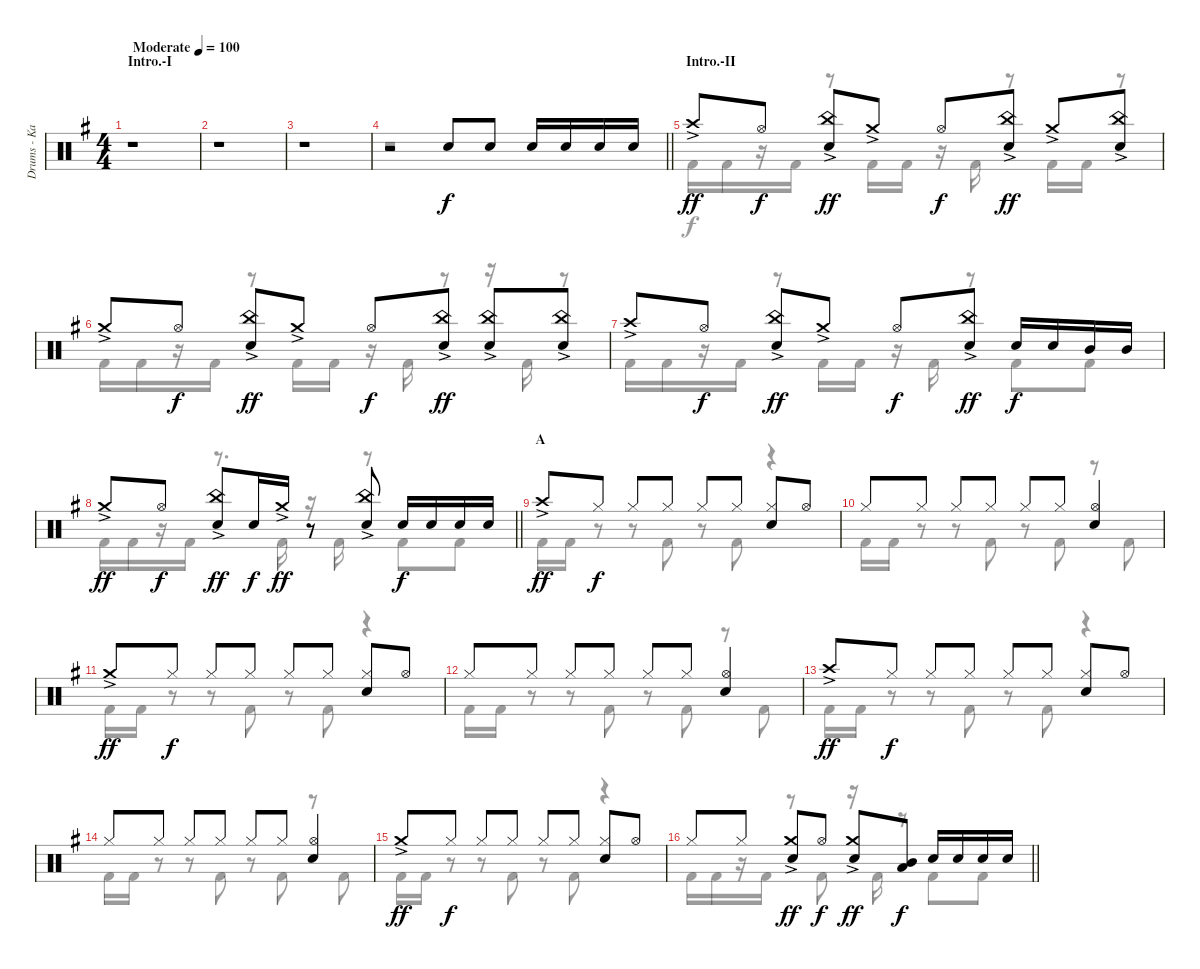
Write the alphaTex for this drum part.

\track ("Drums - Kai" "Drums - Ka") {instrument percussion}
\staff {score}
\articulation defaults
\voice
\ts (4 4)
\section ("" "Intro.-I")
\tempo (100 "Moderate")
\clef neutral
\ks g
r.1{dy f} |
r.1 |
r.1 |
\barLineRight lightlight
r.2 "Electric Snare (hit)".8 "Electric Snare (hit)".8 "Electric Snare (hit)".16 "Electric Snare (hit)".16 "Electric Snare (hit)".16 "Electric Snare (hit)".16 |
\section ("" "Intro.-II")
"Crash high (hit)"{ac}.8{dy ff} "Hi-Hat (open)".8{dy f} ("China (hit)"{ac} "Electric Snare (hit)").8{dy ff} "Crash medium (hit)"{ac}.8 "Hi-Hat (open)".8{dy f} ("China (hit)"{ac} "Electric Snare (hit)").8{dy ff} "Crash medium (hit)"{ac}.8 ("China (hit)"{ac} "Electric Snare (hit)").8 |
"Crash medium (hit)"{ac}.8 "Hi-Hat (open)".8{dy f} ("China (hit)"{ac} "Electric Snare (hit)").8{dy ff} "Crash medium (hit)"{ac}.8 "Hi-Hat (open)".8{dy f} ("China (hit)"{ac} "Electric Snare (hit)").8{dy ff} ("China (hit)"{ac} "Electric Snare (hit)").8 ("China (hit)"{ac} "Electric Snare (hit)").8 |
"Crash high (hit)"{ac}.8 "Hi-Hat (open)".8{dy f} ("China (hit)"{ac} "Electric Snare (hit)").8{dy ff} "Crash medium (hit)"{ac}.8 "Hi-Hat (open)".8{dy f} ("China (hit)"{ac} "Electric Snare (hit)").8{dy ff} "Electric Snare (hit)".16{dy f} "Electric Snare (hit)".16 "Mid Tom (hit)".16 "Mid Tom (hit)".16 |
\barLineRight lightlight "Crash medium (hit)"{ac}.8{dy ff} "Hi-Hat (open)".8{dy f}
("China (hit)"{ac} "Electric Snare (hit)").8{dy ff} "Electric Snare (hit)".16{dy f} "Crash medium (hit)"{ac}.16{dy ff} r.8 ("China (hit)"{ac} "Electric Snare (hit)").8 "Electric Snare (hit)".16{dy f} "Electric Snare (hit)".16 "Electric Snare (hit)".16 "Electric Snare (hit)".16 |
\section ("" "A")
"Crash high (hit)"{ac}.8{dy ff} "Hi-Hat (closed)".8{dy f} "Hi-Hat (closed)".8 "Hi-Hat (closed)".8 "Hi-Hat (closed)".8 "Hi-Hat (closed)".8 ("Hi-Hat (closed)" "Electric Snare (hit)").8 "Hi-Hat (open)".8 |
"Hi-Hat (closed)".8 "Hi-Hat (closed)".8 "Hi-Hat (closed)".8 "Hi-Hat (closed)".8 "Hi-Hat (closed)".8 "Hi-Hat (closed)".8 ("Hi-Hat (open)" "Electric Snare (hit)").4 |
"Crash medium (hit)"{ac}.8{dy ff} "Hi-Hat (closed)".8{dy f} "Hi-Hat (closed)".8 "Hi-Hat (closed)".8 "Hi-Hat (closed)".8 "Hi-Hat (closed)".8 ("Hi-Hat (closed)" "Electric Snare (hit)").8 "Hi-Hat (open)".8 |
"Hi-Hat (closed)".8 "Hi-Hat (closed)".8 "Hi-Hat (closed)".8 "Hi-Hat (closed)".8 "Hi-Hat (closed)".8 "Hi-Hat (closed)".8 ("Hi-Hat (open)" "Electric Snare (hit)").4 |
"Crash high (hit)"{ac}.8{dy ff} "Hi-Hat (closed)".8{dy f} "Hi-Hat (closed)".8 "Hi-Hat (closed)".8 "Hi-Hat (closed)".8 "Hi-Hat (closed)".8 ("Hi-Hat (closed)" "Electric Snare (hit)").8 "Hi-Hat (open)".8 |
"Hi-Hat (closed)".8 "Hi-Hat (closed)".8 "Hi-Hat (closed)".8 "Hi-Hat (closed)".8 "Hi-Hat (closed)".8 "Hi-Hat (closed)".8 ("Hi-Hat (open)" "Electric Snare (hit)").4 |
"Crash medium (hit)"{ac}.8{dy ff} "Hi-Hat (closed)".8{dy f} "Hi-Hat (closed)".8 "Hi-Hat (closed)".8 "Hi-Hat (closed)".8 "Hi-Hat (closed)".8 ("Hi-Hat (closed)" "Electric Snare (hit)").8 "Hi-Hat (open)".8 |
\barLineRight lightlight "Hi-Hat (closed)".8 "Hi-Hat (closed)".8
("Crash medium (hit)"{ac} "Electric Snare (hit)").8{dy ff} "Hi-Hat (open)".8{dy f} ("Crash medium (hit)"{ac} "Electric Snare (hit)").8{dy ff} ("Mid Tom (hit)" "Low Tom (hit)").8{dy f} "Electric Snare (hit)".16 "Electric Snare (hit)".16 "Electric Snare (hit)".16 "Electric Snare (hit)".16
\voice
\clef neutral
\ottava regular
\simile none
\ks g
|
|
|
\barLineRight lightlight
r.1 |
"Kick (hit) 2".16 "Kick (hit) 2".16 r.16 "Kick (hit) 2".16 r.8 "Kick (hit) 2".16 "Kick (hit) 2".16 r.16 "Kick (hit) 2".16 r.8 "Kick (hit) 2".16 "Kick (hit) 2".16 r.8 |
"Kick (hit) 2".16 "Kick (hit) 2".16 r.16 "Kick (hit) 2".16 r.8 "Kick (hit) 2".16 "Kick (hit) 2".16 r.16 "Kick (hit) 2".16 r.8 r.16 "Kick (hit) 2".16 r.8 |
"Kick (hit) 2".16 "Kick (hit) 2".16 r.16 "Kick (hit) 2".16 r.8 "Kick (hit) 2".16 "Kick (hit) 2".16 r.16 "Kick (hit) 2".16 r.8 "Kick (hit) 2".8 "Kick (hit) 2".8 |
\barLineRight lightlight "Kick (hit) 2".16 "Kick (hit) 2".16
r.16 "Kick (hit) 2".16 r.8{d} "Kick (hit) 2".16 r.16 "Kick (hit) 2".16 r.8 "Kick (hit) 2".8 "Kick (hit) 2".8 |
"Kick (hit) 2".16 "Kick (hit) 2".16 r.8 r.8 "Kick (hit) 2".8 r.8 "Kick (hit) 2".8 r.4 |
"Kick (hit) 2".16 "Kick (hit) 2".16 r.8 r.8 "Kick (hit) 2".8 r.8 "Kick (hit) 2".8 r.8 "Kick (hit) 2".8 |
"Kick (hit) 2".16 "Kick (hit) 2".16 r.8 r.8 "Kick (hit) 2".8 r.8 "Kick (hit) 2".8 r.4 |
"Kick (hit) 2".16 "Kick (hit) 2".16 r.8 r.8 "Kick (hit) 2".8 r.8 "Kick (hit) 2".8 r.8 "Kick (hit) 2".8 |
"Kick (hit) 2".16 "Kick (hit) 2".16 r.8 r.8 "Kick (hit) 2".8 r.8 "Kick (hit) 2".8 r.4 |
"Kick (hit) 2".16 "Kick (hit) 2".16 r.8 r.8 "Kick (hit) 2".8 r.8 "Kick (hit) 2".8 r.8 "Kick (hit) 2".8 |
"Kick (hit) 2".16 "Kick (hit) 2".16 r.8 r.8 "Kick (hit) 2".8 r.8 "Kick (hit) 2".8 r.4 |
\barLineRight lightlight "Kick (hit) 2".16 "Kick (hit) 2".16
r.16 "Kick (hit) 2".16 r.8 "Kick (hit) 2".8 r.16 "Kick (hit) 2".16 r.8 "Kick (hit) 2".8 "Kick (hit) 2".8
